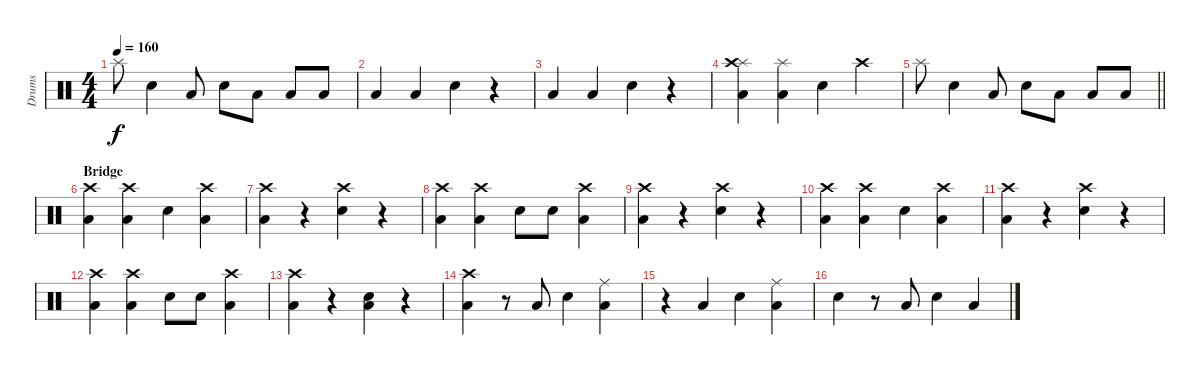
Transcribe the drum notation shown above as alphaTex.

\track ("Drums" "Drums") {instrument percussion}
\staff {score}
\articulation defaults
\ts (4 4)
\tempo 160
\clef neutral
\ks c "Splash (hit)".8{dy f} "Snare (hit) 2".4 "Low Floor Tom (hit)".8 "Snare (hit) 2".8 "Low Floor Tom (hit)".8 "Low Floor Tom (hit)".8 "Low Floor Tom (hit)".8
|
"Low Floor Tom (hit)".4 "Low Floor Tom (hit)".4 "Snare (hit) 2".4 r.4 |
"Low Floor Tom (hit)".4 "Low Floor Tom (hit)".4 "Snare (hit) 2".4 r.4 |
("Low Floor Tom (hit)" "Splash (hit)" "Crash high (hit)").4 ("Low Floor Tom (hit)" "Splash (hit)").4 "Snare (hit) 2".4 "Crash high (hit)".4 |
\barLineRight lightlight "Splash (hit)".8 "Snare (hit) 2".4 "Low Floor Tom (hit)".8 "Snare (hit) 2".8 "Low Floor Tom (hit)".8 "Low Floor Tom (hit)".8 "Low Floor Tom (hit)".8
|
\section ("" "Bridge")
("Low Floor Tom (hit)" "Crash high (hit)").4 ("Low Floor Tom (hit)" "Crash high (hit)").4 "Snare (hit) 2".4 ("Low Floor Tom (hit)" "Crash high (hit)").4 |
("Low Floor Tom (hit)" "Crash high (hit)").4 r.4 ("Crash high (hit)" "Snare (hit) 2").4 r.4 |
("Low Floor Tom (hit)" "Crash high (hit)").4 ("Low Floor Tom (hit)" "Crash high (hit)").4 "Snare (hit) 2".8 "Snare (hit) 2".8 ("Low Floor Tom (hit)" "Crash high (hit)").4 |
("Low Floor Tom (hit)" "Crash high (hit)").4 r.4 ("Crash high (hit)" "Snare (hit) 2").4 r.4 |
("Low Floor Tom (hit)" "Crash high (hit)").4 ("Low Floor Tom (hit)" "Crash high (hit)").4 "Snare (hit) 2".4 ("Low Floor Tom (hit)" "Crash high (hit)").4 |
("Low Floor Tom (hit)" "Crash high (hit)").4 r.4 ("Crash high (hit)" "Snare (hit) 2").4 r.4 |
("Low Floor Tom (hit)" "Crash high (hit)").4 ("Low Floor Tom (hit)" "Crash high (hit)").4 "Snare (hit) 2".8 "Snare (hit) 2".8 ("Low Floor Tom (hit)" "Crash high (hit)").4 |
("Low Floor Tom (hit)" "Crash high (hit)").4 r.4 ("Low Floor Tom (hit)" "Snare (hit) 2").4 r.4 |
("Low Floor Tom (hit)" "Crash high (hit)").4 r.8 "Low Floor Tom (hit)".8 "Snare (hit) 2".4 ("Low Floor Tom (hit)" "Ride (middle)").4 |
r.4 "Low Floor Tom (hit)".4 "Snare (hit) 2".4 ("Low Floor Tom (hit)" "Ride (middle)").4 |
"Snare (hit) 2".4 r.8 "Low Floor Tom (hit)".8 "Snare (hit) 2".4 "Low Floor Tom (hit)".4
